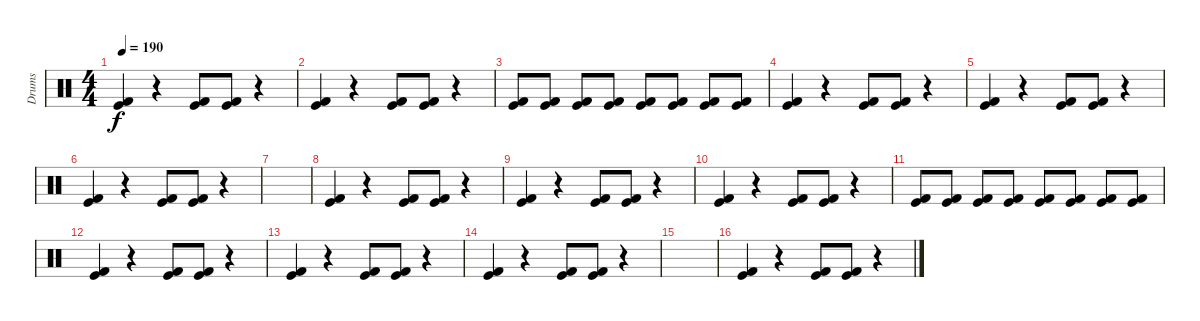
\track ("Drums" "Drums") {instrument percussion}
\staff {score}
\articulation defaults
\ts (4 4)
\tempo 190
\clef neutral
\ks c
("Kick (hit) 2" "Kick (hit)").4{dy f} r.4 ("Kick (hit) 2" "Kick (hit)").8 ("Kick (hit) 2" "Kick (hit)").8 r.4 |
("Kick (hit) 2" "Kick (hit)").4 r.4 ("Kick (hit) 2" "Kick (hit)").8 ("Kick (hit) 2" "Kick (hit)").8 r.4 |
("Kick (hit) 2" "Kick (hit)").8 ("Kick (hit) 2" "Kick (hit)").8 ("Kick (hit) 2" "Kick (hit)").8 ("Kick (hit) 2" "Kick (hit)").8 ("Kick (hit) 2" "Kick (hit)").8 ("Kick (hit) 2" "Kick (hit)").8 ("Kick (hit) 2" "Kick (hit)").8 ("Kick (hit) 2" "Kick (hit)").8 |
("Kick (hit) 2" "Kick (hit)").4 r.4 ("Kick (hit) 2" "Kick (hit)").8 ("Kick (hit) 2" "Kick (hit)").8 r.4 |
("Kick (hit) 2" "Kick (hit)").4 r.4 ("Kick (hit) 2" "Kick (hit)").8 ("Kick (hit) 2" "Kick (hit)").8 r.4 |
("Kick (hit) 2" "Kick (hit)").4 r.4 ("Kick (hit) 2" "Kick (hit)").8 ("Kick (hit) 2" "Kick (hit)").8 r.4 |
|
("Kick (hit) 2" "Kick (hit)").4 r.4 ("Kick (hit) 2" "Kick (hit)").8 ("Kick (hit) 2" "Kick (hit)").8 r.4 |
("Kick (hit) 2" "Kick (hit)").4 r.4 ("Kick (hit) 2" "Kick (hit)").8 ("Kick (hit) 2" "Kick (hit)").8 r.4 |
("Kick (hit) 2" "Kick (hit)").4 r.4 ("Kick (hit) 2" "Kick (hit)").8 ("Kick (hit) 2" "Kick (hit)").8 r.4 |
("Kick (hit) 2" "Kick (hit)").8 ("Kick (hit) 2" "Kick (hit)").8 ("Kick (hit) 2" "Kick (hit)").8 ("Kick (hit) 2" "Kick (hit)").8 ("Kick (hit) 2" "Kick (hit)").8 ("Kick (hit) 2" "Kick (hit)").8 ("Kick (hit) 2" "Kick (hit)").8 ("Kick (hit) 2" "Kick (hit)").8 |
("Kick (hit) 2" "Kick (hit)").4 r.4 ("Kick (hit) 2" "Kick (hit)").8 ("Kick (hit) 2" "Kick (hit)").8 r.4 |
("Kick (hit) 2" "Kick (hit)").4 r.4 ("Kick (hit) 2" "Kick (hit)").8 ("Kick (hit) 2" "Kick (hit)").8 r.4 |
("Kick (hit) 2" "Kick (hit)").4 r.4 ("Kick (hit) 2" "Kick (hit)").8 ("Kick (hit) 2" "Kick (hit)").8 r.4 |
|
("Kick (hit) 2" "Kick (hit)").4 r.4 ("Kick (hit) 2" "Kick (hit)").8 ("Kick (hit) 2" "Kick (hit)").8 r.4
